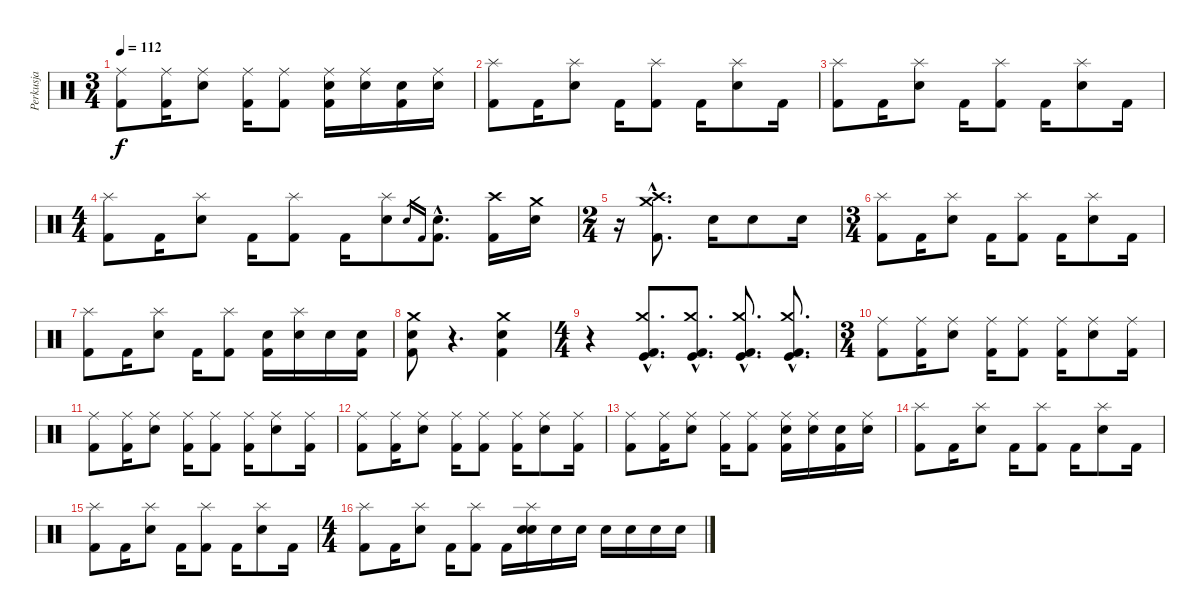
\track ("Perkusja" "Perkusja") {instrument percussion}
\staff {score}
\articulation defaults
\ts (3 4)
\tempo 112
\clef neutral
\ks c
("Ride (middle)" "Kick (hit) 2").8{dy f} ("Ride (middle)" "Kick (hit) 2").16 ("Ride (middle)" "Electric Snare (hit)").8 ("Ride (middle)" "Kick (hit) 2").16 ("Ride (middle)" "Kick (hit) 2").8 ("Ride (middle)" "Electric Snare (hit)" "Kick (hit) 2").16 ("Ride (middle)" "Electric Snare (hit)").16 ("Electric Snare (hit)" "Kick (hit) 2").16 ("Ride (middle)" "Electric Snare (hit)").16 |
("Splash (hit)" "Kick (hit) 2").8 "Kick (hit) 2".16 ("Splash (hit)" "Electric Snare (hit)").8 "Kick (hit) 2".16 ("Splash (hit)" "Kick (hit) 2").8 "Kick (hit) 2".16 ("Splash (hit)" "Electric Snare (hit)").8 "Kick (hit) 2".16 |
("Splash (hit)" "Kick (hit) 2").8 "Kick (hit) 2".16 ("Splash (hit)" "Electric Snare (hit)").8 "Kick (hit) 2".16 ("Splash (hit)" "Kick (hit) 2").8 "Kick (hit) 2".16 ("Splash (hit)" "Electric Snare (hit)").8 "Kick (hit) 2".16 |
\ts (4 4)
("Splash (hit)" "Kick (hit) 2").8 "Kick (hit) 2".16 ("Splash (hit)" "Electric Snare (hit)").8 "Kick (hit) 2".16 ("Splash (hit)" "Kick (hit) 2").8 "Kick (hit) 2".16 ("Splash (hit)" "Electric Snare (hit)").8 "Electric Snare (hit)".16{gr} "Kick (hit) 2".16{gr} ("Electric Snare (hit)"{hac} "Kick (hit) 2"{hac}).8{d} ("Crash high (hit)" "Kick (hit) 2").16 ("Crash medium (hit)" "Electric Snare (hit)").16 |
\ts (2 4)
r.16 ("Crash high (hit)"{hac} "Crash medium (hit)"{hac} "Kick (hit) 2"{hac}).8{d} "Electric Snare (hit)".16 "Electric Snare (hit)".8 "Electric Snare (hit)".16 |
\ts (3 4)
("Splash (hit)" "Kick (hit) 2").8 "Kick (hit) 2".16 ("Splash (hit)" "Electric Snare (hit)").8 "Kick (hit) 2".16 ("Splash (hit)" "Kick (hit) 2").8 "Kick (hit) 2".16 ("Splash (hit)" "Electric Snare (hit)").8 "Kick (hit) 2".16 |
("Splash (hit)" "Kick (hit) 2").8 "Kick (hit) 2".16 ("Splash (hit)" "Electric Snare (hit)").8 "Kick (hit) 2".16 ("Splash (hit)" "Kick (hit) 2").8 ("Electric Snare (hit)" "Kick (hit) 2").16 ("Splash (hit)" "Electric Snare (hit)").16 "Electric Snare (hit)".16 ("Electric Snare (hit)" "Kick (hit) 2").16 |
("Crash medium (hit)" "Electric Snare (hit)" "Kick (hit) 2").8 r.4{d} ("Crash medium (hit)" "Electric Snare (hit)" "Kick (hit) 2").4 |
\ts (4 4)
r.4 ("Crash medium (hit)"{hac} "Kick (hit)"{hac} "Kick (hit) 2"{hac}).8{d} ("Crash medium (hit)"{hac} "Kick (hit)"{hac} "Kick (hit) 2"{hac}).8{d} ("Crash medium (hit)"{hac} "Kick (hit)"{hac} "Kick (hit) 2"{hac}).8{d} ("Crash medium (hit)"{hac} "Kick (hit)"{hac} "Kick (hit) 2"{hac}).8{d} |
\ts (3 4)
("Ride (middle)" "Kick (hit) 2").8 ("Ride (middle)" "Kick (hit) 2").16 ("Ride (middle)" "Electric Snare (hit)").8 ("Ride (middle)" "Kick (hit) 2").16 ("Ride (middle)" "Kick (hit) 2").8 ("Ride (middle)" "Kick (hit) 2").16 ("Ride (middle)" "Electric Snare (hit)").8 ("Ride (middle)" "Kick (hit) 2").16 |
("Ride (middle)" "Kick (hit) 2").8 ("Ride (middle)" "Kick (hit) 2").16 ("Ride (middle)" "Electric Snare (hit)").8 ("Ride (middle)" "Kick (hit) 2").16 ("Ride (middle)" "Kick (hit) 2").8 ("Ride (middle)" "Kick (hit) 2").16 ("Ride (middle)" "Electric Snare (hit)").8 ("Ride (middle)" "Kick (hit) 2").16 |
("Ride (middle)" "Kick (hit) 2").8 ("Ride (middle)" "Kick (hit) 2").16 ("Ride (middle)" "Electric Snare (hit)").8 ("Ride (middle)" "Kick (hit) 2").16 ("Ride (middle)" "Kick (hit) 2").8 ("Ride (middle)" "Kick (hit) 2").16 ("Ride (middle)" "Electric Snare (hit)").8 ("Ride (middle)" "Kick (hit) 2").16 |
("Ride (middle)" "Kick (hit) 2").8 ("Ride (middle)" "Kick (hit) 2").16 ("Ride (middle)" "Electric Snare (hit)").8 ("Ride (middle)" "Kick (hit) 2").16 ("Ride (middle)" "Kick (hit) 2").8 ("Ride (middle)" "Electric Snare (hit)" "Kick (hit) 2").16 ("Ride (middle)" "Electric Snare (hit)").16 ("Electric Snare (hit)" "Kick (hit) 2").16 ("Ride (middle)" "Electric Snare (hit)").16 |
("Splash (hit)" "Kick (hit) 2").8 "Kick (hit) 2".16 ("Splash (hit)" "Electric Snare (hit)").8 "Kick (hit) 2".16 ("Splash (hit)" "Kick (hit) 2").8 "Kick (hit) 2".16 ("Splash (hit)" "Electric Snare (hit)").8 "Kick (hit) 2".16 |
("Splash (hit)" "Kick (hit) 2").8 "Kick (hit) 2".16 ("Splash (hit)" "Electric Snare (hit)").8 "Kick (hit) 2".16 ("Splash (hit)" "Kick (hit) 2").8 "Kick (hit) 2".16 ("Splash (hit)" "Electric Snare (hit)").8 "Kick (hit) 2".16 |
\ts (4 4)
("Splash (hit)" "Kick (hit) 2").8 "Kick (hit) 2".16 ("Splash (hit)" "Electric Snare (hit)").8 "Kick (hit) 2".16 ("Splash (hit)" "Kick (hit) 2").8 "Kick (hit) 2".16 ("Splash (hit)" "Electric Snare (hit)" "Electric Snare (hit)").16 "Electric Snare (hit)".16 "Electric Snare (hit)".16 "Electric Snare (hit)".16 "Electric Snare (hit)".16 "Electric Snare (hit)".16 "Electric Snare (hit)".16
